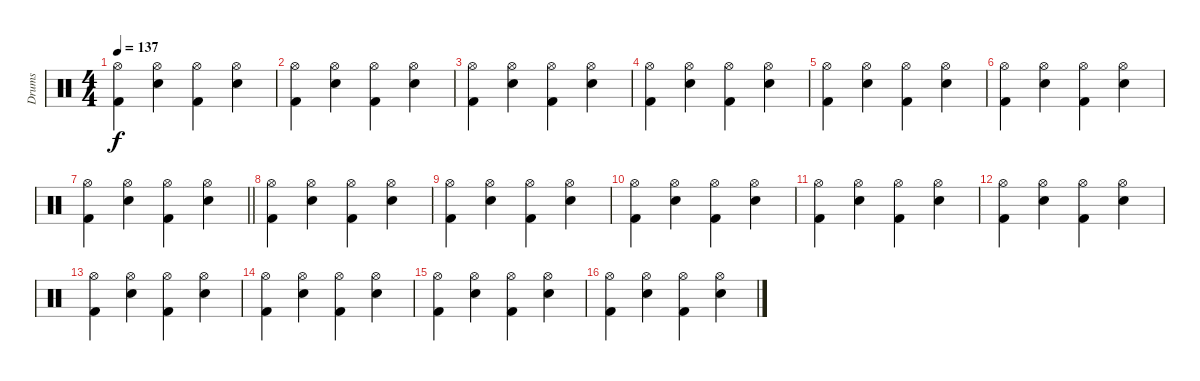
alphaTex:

\track ("Drums" "Drums") {instrument percussion}
\staff {score}
\articulation defaults
\ts (4 4)
\tempo 137
\clef neutral
\ks c
("Hi-Hat (open)" "Kick (hit) 2").4{dy f} ("Hi-Hat (open)" "Snare (hit) 2").4 ("Hi-Hat (open)" "Kick (hit) 2").4 ("Hi-Hat (open)" "Snare (hit) 2").4 |
("Hi-Hat (open)" "Kick (hit) 2").4 ("Hi-Hat (open)" "Snare (hit) 2").4 ("Hi-Hat (open)" "Kick (hit) 2").4 ("Hi-Hat (open)" "Snare (hit) 2").4 |
("Hi-Hat (open)" "Kick (hit) 2").4 ("Hi-Hat (open)" "Snare (hit) 2").4 ("Hi-Hat (open)" "Kick (hit) 2").4 ("Hi-Hat (open)" "Snare (hit) 2").4 |
("Hi-Hat (open)" "Kick (hit) 2").4 ("Hi-Hat (open)" "Snare (hit) 2").4 ("Hi-Hat (open)" "Kick (hit) 2").4 ("Hi-Hat (open)" "Snare (hit) 2").4 |
("Hi-Hat (open)" "Kick (hit) 2").4 ("Hi-Hat (open)" "Snare (hit) 2").4 ("Hi-Hat (open)" "Kick (hit) 2").4 ("Hi-Hat (open)" "Snare (hit) 2").4 |
("Hi-Hat (open)" "Kick (hit) 2").4 ("Hi-Hat (open)" "Snare (hit) 2").4 ("Hi-Hat (open)" "Kick (hit) 2").4 ("Hi-Hat (open)" "Snare (hit) 2").4 |
\barLineRight lightlight
("Hi-Hat (open)" "Kick (hit) 2").4 ("Hi-Hat (open)" "Snare (hit) 2").4 ("Hi-Hat (open)" "Kick (hit) 2").4 ("Hi-Hat (open)" "Snare (hit) 2").4 |
("Hi-Hat (open)" "Kick (hit) 2").4 ("Hi-Hat (open)" "Snare (hit) 2").4 ("Hi-Hat (open)" "Kick (hit) 2").4 ("Hi-Hat (open)" "Snare (hit) 2").4 |
("Hi-Hat (open)" "Kick (hit) 2").4 ("Hi-Hat (open)" "Snare (hit) 2").4 ("Hi-Hat (open)" "Kick (hit) 2").4 ("Hi-Hat (open)" "Snare (hit) 2").4 |
("Hi-Hat (open)" "Kick (hit) 2").4 ("Hi-Hat (open)" "Snare (hit) 2").4 ("Hi-Hat (open)" "Kick (hit) 2").4 ("Hi-Hat (open)" "Snare (hit) 2").4 |
("Hi-Hat (open)" "Kick (hit) 2").4 ("Hi-Hat (open)" "Snare (hit) 2").4 ("Hi-Hat (open)" "Kick (hit) 2").4 ("Hi-Hat (open)" "Snare (hit) 2").4 |
("Hi-Hat (open)" "Kick (hit) 2").4 ("Hi-Hat (open)" "Snare (hit) 2").4 ("Hi-Hat (open)" "Kick (hit) 2").4 ("Hi-Hat (open)" "Snare (hit) 2").4 |
("Hi-Hat (open)" "Kick (hit) 2").4 ("Hi-Hat (open)" "Snare (hit) 2").4 ("Hi-Hat (open)" "Kick (hit) 2").4 ("Hi-Hat (open)" "Snare (hit) 2").4 |
("Hi-Hat (open)" "Kick (hit) 2").4 ("Hi-Hat (open)" "Snare (hit) 2").4 ("Hi-Hat (open)" "Kick (hit) 2").4 ("Hi-Hat (open)" "Snare (hit) 2").4 |
("Hi-Hat (open)" "Kick (hit) 2").4 ("Hi-Hat (open)" "Snare (hit) 2").4 ("Hi-Hat (open)" "Kick (hit) 2").4 ("Hi-Hat (open)" "Snare (hit) 2").4 |
("Hi-Hat (open)" "Kick (hit) 2").4 ("Hi-Hat (open)" "Snare (hit) 2").4 ("Hi-Hat (open)" "Kick (hit) 2").4 ("Hi-Hat (open)" "Snare (hit) 2").4
